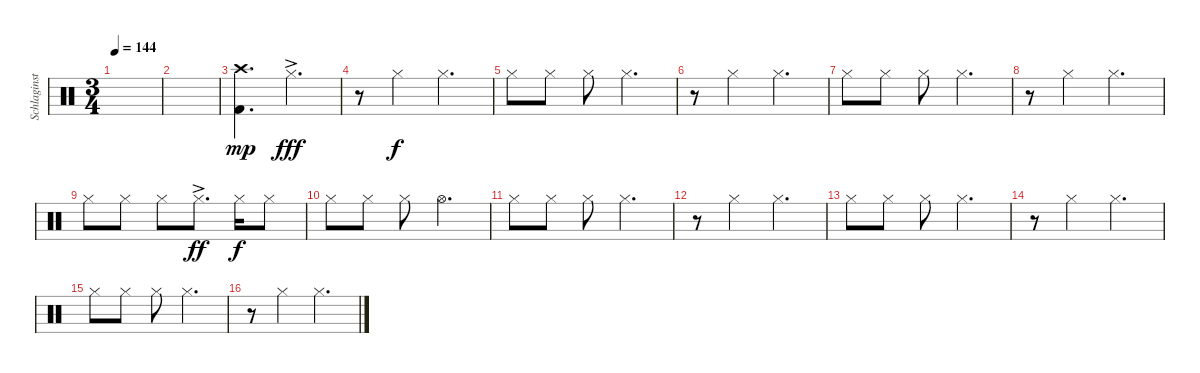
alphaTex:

\track ("Schlaginstrumente - Auswahl" "Schlaginst") {instrument percussion}
\staff {score}
\articulation defaults
\ts (3 4)
\tempo 144
\clef neutral
\ks c
|
|
("Crash high (hit)" "Kick (hit) 2").4{d dy mp} "Hi-Hat (closed)"{ac}.4{d dy fff} |
r.8 "Hi-Hat (closed)".4{dy f} "Hi-Hat (closed)".4{d} |
"Hi-Hat (closed)".8 "Hi-Hat (closed)".8 "Hi-Hat (closed)".8 "Hi-Hat (closed)".4{d} |
r.8 "Hi-Hat (closed)".4 "Hi-Hat (closed)".4{d} |
"Hi-Hat (closed)".8 "Hi-Hat (closed)".8 "Hi-Hat (closed)".8 "Hi-Hat (closed)".4{d} |
r.8 "Hi-Hat (closed)".4 "Hi-Hat (closed)".4{d} |
"Hi-Hat (closed)".8 "Hi-Hat (closed)".8 "Hi-Hat (closed)".8 "Hi-Hat (closed)"{ac}.8{d dy ff} "Hi-Hat (closed)".16{dy f} "Hi-Hat (closed)".8 |
"Hi-Hat (closed)".8 "Hi-Hat (closed)".8 "Hi-Hat (closed)".8 "Hi-Hat (open)".4{d} |
"Hi-Hat (closed)".8 "Hi-Hat (closed)".8 "Hi-Hat (closed)".8 "Hi-Hat (closed)".4{d} |
r.8 "Hi-Hat (closed)".4 "Hi-Hat (closed)".4{d} |
"Hi-Hat (closed)".8 "Hi-Hat (closed)".8 "Hi-Hat (closed)".8 "Hi-Hat (closed)".4{d} |
r.8 "Hi-Hat (closed)".4 "Hi-Hat (closed)".4{d} |
"Hi-Hat (closed)".8 "Hi-Hat (closed)".8 "Hi-Hat (closed)".8 "Hi-Hat (closed)".4{d} |
r.8 "Hi-Hat (closed)".4 "Hi-Hat (closed)".4{d}
